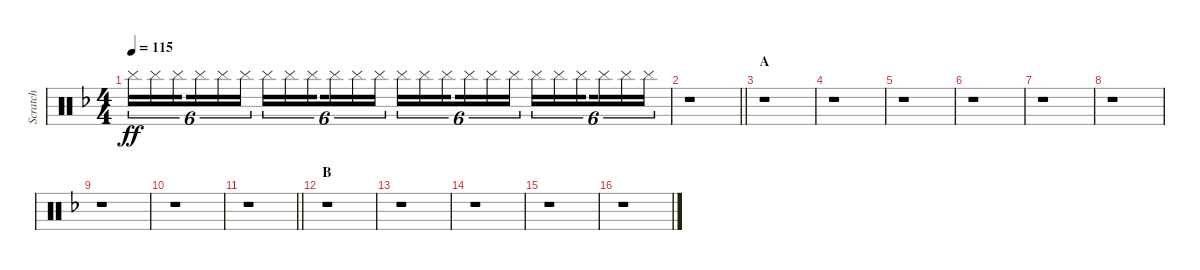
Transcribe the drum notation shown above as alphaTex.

\track ("Scratch" "Scratch") {instrument percussion}
\staff {score}
\articulation defaults
\ts (4 4)
\tempo 115
\clef neutral
\ks f "Cymbal (hit)".16{tu (6 4) dy ff} "Cymbal (hit)".16{tu (6 4)} "Cymbal (hit)".16{tu (6 4) beam splitsecondary} "Cymbal (hit)".16{tu (6 4)} "Cymbal (hit)".16{tu (6 4)} "Cymbal (hit)".16{tu (6 4)} "Cymbal (hit)".16{tu (6 4)} "Cymbal (hit)".16{tu (6 4)} "Cymbal (hit)".16{tu (6 4) beam splitsecondary} "Cymbal (hit)".16{tu (6 4)} "Cymbal (hit)".16{tu (6 4)} "Cymbal (hit)".16{tu (6 4)} "Cymbal (hit)".16{tu (6 4)} "Cymbal (hit)".16{tu (6 4)} "Cymbal (hit)".16{tu (6 4) beam splitsecondary} "Cymbal (hit)".16{tu (6 4)} "Cymbal (hit)".16{tu (6 4)} "Cymbal (hit)".16{tu (6 4)} "Cymbal (hit)".16{tu (6 4)} "Cymbal (hit)".16{tu (6 4)} "Cymbal (hit)".16{tu (6 4) beam splitsecondary} "Cymbal (hit)".16{tu (6 4)} "Cymbal (hit)".16{tu (6 4)} "Cymbal (hit)".16{tu (6 4)}
|
\barLineRight lightlight
r.1 |
\section ("" "A")
r.1 |
r.1 |
r.1 |
r.1 |
r.1 |
r.1 |
r.1 |
r.1 |
\barLineRight lightlight
r.1 |
\section ("" "B")
r.1 |
r.1 |
r.1 |
r.1 |
r.1
